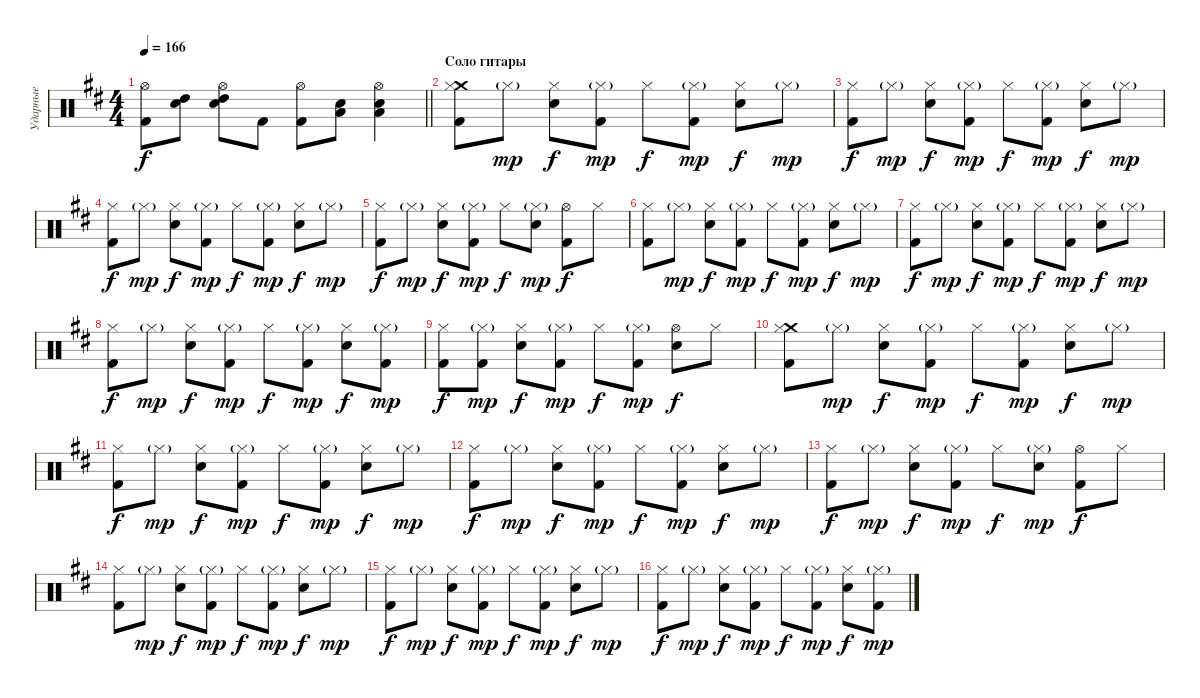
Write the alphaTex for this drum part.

\track ("Ударные" "Ударные") {instrument percussion}
\staff {score}
\articulation defaults
\ts (4 4)
\tempo 166
\clef neutral
\barLineRight lightlight
\ks bminor
("Kick (hit) 2" "Hi-Hat (open)").8{dy f} ("High Tom (hit)" "Electric Snare (hit)").8 ("High Tom (hit)" "Electric Snare (hit)" "Hi-Hat (open)").8 "Kick (hit) 2".8 ("Kick (hit) 2" "Hi-Hat (open)").8 ("Low Tom (hit)" "Electric Snare (hit)").8 ("Low Tom (hit)" "Electric Snare (hit)" "Hi-Hat (open)").4 |
\section ("" "Соло гитары")
("Crash medium (hit)" "Kick (hit) 2" "Hi-Hat (closed)").8 "Hi-Hat (closed)"{g}.8{dy mp} ("Electric Snare (hit)" "Hi-Hat (closed)").8{dy f} ("Kick (hit) 2" "Hi-Hat (closed)"{g}).8{dy mp} "Hi-Hat (closed)".8{dy f} ("Kick (hit) 2" "Hi-Hat (closed)"{g}).8{dy mp} ("Electric Snare (hit)" "Hi-Hat (closed)").8{dy f} "Hi-Hat (closed)"{g}.8{dy mp} |
("Kick (hit) 2" "Hi-Hat (closed)").8{dy f} "Hi-Hat (closed)"{g}.8{dy mp} ("Electric Snare (hit)" "Hi-Hat (closed)").8{dy f} ("Kick (hit) 2" "Hi-Hat (closed)"{g}).8{dy mp} "Hi-Hat (closed)".8{dy f} ("Kick (hit) 2" "Hi-Hat (closed)"{g}).8{dy mp} ("Electric Snare (hit)" "Hi-Hat (closed)").8{dy f} "Hi-Hat (closed)"{g}.8{dy mp} |
("Kick (hit) 2" "Hi-Hat (closed)").8{dy f} "Hi-Hat (closed)"{g}.8{dy mp} ("Electric Snare (hit)" "Hi-Hat (closed)").8{dy f} ("Kick (hit) 2" "Hi-Hat (closed)"{g}).8{dy mp} "Hi-Hat (closed)".8{dy f} ("Kick (hit) 2" "Hi-Hat (closed)"{g}).8{dy mp} ("Electric Snare (hit)" "Hi-Hat (closed)").8{dy f} "Hi-Hat (closed)"{g}.8{dy mp} |
("Kick (hit) 2" "Hi-Hat (closed)").8{dy f} "Hi-Hat (closed)"{g}.8{dy mp} ("Electric Snare (hit)" "Hi-Hat (closed)").8{dy f} ("Kick (hit) 2" "Hi-Hat (closed)"{g}).8{dy mp} "Hi-Hat (closed)".8{dy f} ("Electric Snare (hit)" "Hi-Hat (closed)"{g}).8{dy mp} ("Kick (hit) 2" "Hi-Hat (open)").8{dy f} "Hi-Hat (closed)".8 |
("Kick (hit) 2" "Hi-Hat (closed)").8 "Hi-Hat (closed)"{g}.8{dy mp} ("Electric Snare (hit)" "Hi-Hat (closed)").8{dy f} ("Kick (hit) 2" "Hi-Hat (closed)"{g}).8{dy mp} "Hi-Hat (closed)".8{dy f} ("Kick (hit) 2" "Hi-Hat (closed)"{g}).8{dy mp} ("Electric Snare (hit)" "Hi-Hat (closed)").8{dy f} "Hi-Hat (closed)"{g}.8{dy mp} |
("Kick (hit) 2" "Hi-Hat (closed)").8{dy f} "Hi-Hat (closed)"{g}.8{dy mp} ("Electric Snare (hit)" "Hi-Hat (closed)").8{dy f} ("Kick (hit) 2" "Hi-Hat (closed)"{g}).8{dy mp} "Hi-Hat (closed)".8{dy f} ("Kick (hit) 2" "Hi-Hat (closed)"{g}).8{dy mp} ("Electric Snare (hit)" "Hi-Hat (closed)").8{dy f} "Hi-Hat (closed)"{g}.8{dy mp} |
("Kick (hit) 2" "Hi-Hat (closed)").8{dy f} "Hi-Hat (closed)"{g}.8{dy mp} ("Electric Snare (hit)" "Hi-Hat (closed)").8{dy f} ("Kick (hit) 2" "Hi-Hat (closed)"{g}).8{dy mp} "Hi-Hat (closed)".8{dy f} ("Kick (hit) 2" "Hi-Hat (closed)"{g}).8{dy mp} ("Electric Snare (hit)" "Hi-Hat (closed)").8{dy f} ("Kick (hit) 2" "Hi-Hat (closed)"{g}).8{dy mp} |
("Kick (hit) 2" "Hi-Hat (closed)").8{dy f} ("Kick (hit) 2" "Hi-Hat (closed)"{g}).8{dy mp} ("Electric Snare (hit)" "Hi-Hat (closed)").8{dy f} ("Kick (hit) 2" "Hi-Hat (closed)"{g}).8{dy mp} "Hi-Hat (closed)".8{dy f} ("Kick (hit) 2" "Hi-Hat (closed)"{g}).8{dy mp} ("Electric Snare (hit)" "Hi-Hat (open)").8{dy f} "Hi-Hat (closed)".8 |
("Crash medium (hit)" "Kick (hit) 2" "Hi-Hat (closed)").8 "Hi-Hat (closed)"{g}.8{dy mp} ("Electric Snare (hit)" "Hi-Hat (closed)").8{dy f} ("Kick (hit) 2" "Hi-Hat (closed)"{g}).8{dy mp} "Hi-Hat (closed)".8{dy f} ("Kick (hit) 2" "Hi-Hat (closed)"{g}).8{dy mp} ("Electric Snare (hit)" "Hi-Hat (closed)").8{dy f} "Hi-Hat (closed)"{g}.8{dy mp} |
("Kick (hit) 2" "Hi-Hat (closed)").8{dy f} "Hi-Hat (closed)"{g}.8{dy mp} ("Electric Snare (hit)" "Hi-Hat (closed)").8{dy f} ("Kick (hit) 2" "Hi-Hat (closed)"{g}).8{dy mp} "Hi-Hat (closed)".8{dy f} ("Kick (hit) 2" "Hi-Hat (closed)"{g}).8{dy mp} ("Electric Snare (hit)" "Hi-Hat (closed)").8{dy f} "Hi-Hat (closed)"{g}.8{dy mp} |
("Kick (hit) 2" "Hi-Hat (closed)").8{dy f} "Hi-Hat (closed)"{g}.8{dy mp} ("Electric Snare (hit)" "Hi-Hat (closed)").8{dy f} ("Kick (hit) 2" "Hi-Hat (closed)"{g}).8{dy mp} "Hi-Hat (closed)".8{dy f} ("Kick (hit) 2" "Hi-Hat (closed)"{g}).8{dy mp} ("Electric Snare (hit)" "Hi-Hat (closed)").8{dy f} "Hi-Hat (closed)"{g}.8{dy mp} |
("Kick (hit) 2" "Hi-Hat (closed)").8{dy f} "Hi-Hat (closed)"{g}.8{dy mp} ("Electric Snare (hit)" "Hi-Hat (closed)").8{dy f} ("Kick (hit) 2" "Hi-Hat (closed)"{g}).8{dy mp} "Hi-Hat (closed)".8{dy f} ("Electric Snare (hit)" "Hi-Hat (closed)"{g}).8{dy mp} ("Kick (hit) 2" "Hi-Hat (open)").8{dy f} "Hi-Hat (closed)".8 |
("Kick (hit) 2" "Hi-Hat (closed)").8 "Hi-Hat (closed)"{g}.8{dy mp} ("Electric Snare (hit)" "Hi-Hat (closed)").8{dy f} ("Kick (hit) 2" "Hi-Hat (closed)"{g}).8{dy mp} "Hi-Hat (closed)".8{dy f} ("Kick (hit) 2" "Hi-Hat (closed)"{g}).8{dy mp} ("Electric Snare (hit)" "Hi-Hat (closed)").8{dy f} "Hi-Hat (closed)"{g}.8{dy mp} |
("Kick (hit) 2" "Hi-Hat (closed)").8{dy f} "Hi-Hat (closed)"{g}.8{dy mp} ("Electric Snare (hit)" "Hi-Hat (closed)").8{dy f} ("Kick (hit) 2" "Hi-Hat (closed)"{g}).8{dy mp} "Hi-Hat (closed)".8{dy f} ("Kick (hit) 2" "Hi-Hat (closed)"{g}).8{dy mp} ("Electric Snare (hit)" "Hi-Hat (closed)").8{dy f} "Hi-Hat (closed)"{g}.8{dy mp} |
("Kick (hit) 2" "Hi-Hat (closed)").8{dy f} "Hi-Hat (closed)"{g}.8{dy mp} ("Electric Snare (hit)" "Hi-Hat (closed)").8{dy f} ("Kick (hit) 2" "Hi-Hat (closed)"{g}).8{dy mp} "Hi-Hat (closed)".8{dy f} ("Kick (hit) 2" "Hi-Hat (closed)"{g}).8{dy mp} ("Electric Snare (hit)" "Hi-Hat (closed)").8{dy f} ("Kick (hit) 2" "Hi-Hat (closed)"{g}).8{dy mp}
